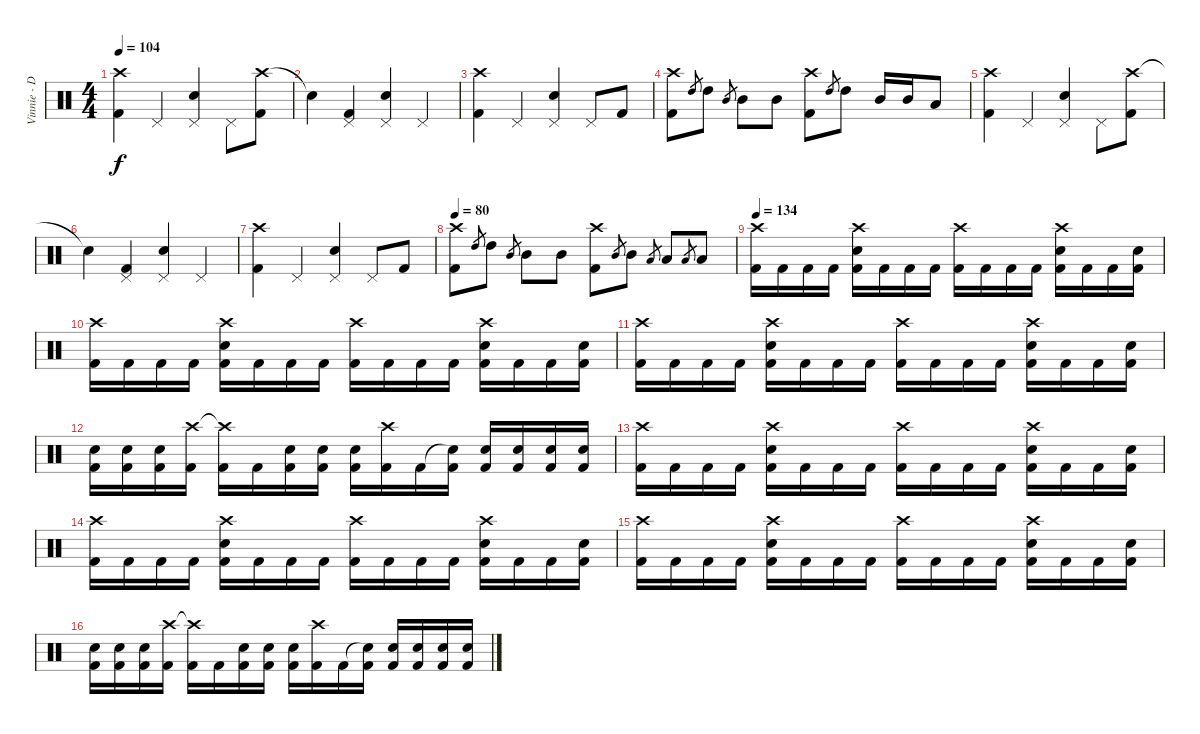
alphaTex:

\track ("Vinnie - Drums" "Vinnie - D") {instrument percussion}
\staff {score}
\articulation defaults
\ts (4 4)
\tempo 104
\clef neutral
\ks c
("Crash high (hit)" "Kick (hit) 2").4{dy f} "Pedal Hi-Hat (hit)".4 ("Pedal Hi-Hat (hit)" "Electric Snare (hit)").4 "Pedal Hi-Hat (hit)".8 ("Crash high (hit)" "Kick (hit) 2").8 |
"Snare (hit)"{t}.4 ("Pedal Hi-Hat (hit)" "Kick (hit) 2").4 ("Pedal Hi-Hat (hit)" "Electric Snare (hit)").4 "Pedal Hi-Hat (hit)".4 |
("Crash high (hit)" "Kick (hit) 2").4 "Pedal Hi-Hat (hit)".4 ("Pedal Hi-Hat (hit)" "Electric Snare (hit)").4 "Pedal Hi-Hat (hit)".8 "Kick (hit) 2".8 |
("Crash high (hit)" "Kick (hit) 2").8 "High Tom (hit)".8{gr} "High Tom (hit)".8 "Mid Tom (hit)".8{gr} "Mid Tom (hit)".8 "Mid Tom (hit)".8 ("Crash high (hit)" "Kick (hit) 2").8 "High Tom (hit)".8{gr} "High Tom (hit)".8 "Mid Tom (hit)".16 "Mid Tom (hit)".16 "Low Tom (hit)".8 |
("Crash high (hit)" "Kick (hit) 2").4 "Pedal Hi-Hat (hit)".4 ("Pedal Hi-Hat (hit)" "Electric Snare (hit)").4 "Pedal Hi-Hat (hit)".8 ("Crash high (hit)" "Kick (hit) 2").8 |
"Snare (hit)"{t}.4 ("Pedal Hi-Hat (hit)" "Kick (hit) 2").4 ("Pedal Hi-Hat (hit)" "Electric Snare (hit)").4 "Pedal Hi-Hat (hit)".4 |
("Crash high (hit)" "Kick (hit) 2").4 "Pedal Hi-Hat (hit)".4 ("Pedal Hi-Hat (hit)" "Electric Snare (hit)").4 "Pedal Hi-Hat (hit)".8 "Kick (hit) 2".8 |
\tempo 80
("Crash high (hit)" "Kick (hit) 2").8 "High Tom (hit)".8{gr} "High Tom (hit)".8 "Mid Tom (hit)".8{gr} "Mid Tom (hit)".8 "Mid Tom (hit)".8 ("Crash high (hit)" "Kick (hit) 2").8 "Mid Tom (hit)".8{gr} "Mid Tom (hit)".8 "Low Tom (hit)".8{gr} "Low Tom (hit)".8 "Low Tom (hit)".8{gr} "Low Tom (hit)".8 |
\tempo 134
("Crash high (hit)" "Kick (hit) 2").16 "Kick (hit) 2".16 "Kick (hit) 2".16 "Kick (hit) 2".16 ("Crash high (hit)" "Electric Snare (hit)" "Kick (hit) 2").16 "Kick (hit) 2".16 "Kick (hit) 2".16 "Kick (hit) 2".16 ("Crash high (hit)" "Kick (hit) 2").16 "Kick (hit) 2".16 "Kick (hit) 2".16 "Kick (hit) 2".16 ("Crash high (hit)" "Electric Snare (hit)" "Kick (hit) 2").16 "Kick (hit) 2".16 "Kick (hit) 2".16 ("Electric Snare (hit)" "Kick (hit) 2").16 |
("Crash high (hit)" "Kick (hit) 2").16 "Kick (hit) 2".16 "Kick (hit) 2".16 "Kick (hit) 2".16 ("Crash high (hit)" "Electric Snare (hit)" "Kick (hit) 2").16 "Kick (hit) 2".16 "Kick (hit) 2".16 "Kick (hit) 2".16 ("Crash high (hit)" "Kick (hit) 2").16 "Kick (hit) 2".16 "Kick (hit) 2".16 "Kick (hit) 2".16 ("Crash high (hit)" "Electric Snare (hit)" "Kick (hit) 2").16 "Kick (hit) 2".16 "Kick (hit) 2".16 ("Electric Snare (hit)" "Kick (hit) 2").16 |
("Crash high (hit)" "Kick (hit) 2").16 "Kick (hit) 2".16 "Kick (hit) 2".16 "Kick (hit) 2".16 ("Crash high (hit)" "Electric Snare (hit)" "Kick (hit) 2").16 "Kick (hit) 2".16 "Kick (hit) 2".16 "Kick (hit) 2".16 ("Crash high (hit)" "Kick (hit) 2").16 "Kick (hit) 2".16 "Kick (hit) 2".16 "Kick (hit) 2".16 ("Crash high (hit)" "Electric Snare (hit)" "Kick (hit) 2").16 "Kick (hit) 2".16 "Kick (hit) 2".16 ("Electric Snare (hit)" "Kick (hit) 2").16 |
("Electric Snare (hit)" "Kick (hit) 2").16 ("Electric Snare (hit)" "Kick (hit) 2").16 ("Electric Snare (hit)" "Kick (hit) 2").16 ("Crash high (hit)" "Kick (hit) 2").16 ("Crash high (hit)"{t} "Kick (hit) 2").16 "Kick (hit) 2".16 ("Electric Snare (hit)" "Kick (hit) 2").16 ("Electric Snare (hit)" "Kick (hit) 2").16 ("Electric Snare (hit)" "Kick (hit) 2").16 ("Crash high (hit)" "Kick (hit) 2").16 "Kick (hit) 2".16 ("Snare (hit)"{t} "Kick (hit) 2").16 ("Electric Snare (hit)" "Kick (hit) 2").16 ("Electric Snare (hit)" "Kick (hit) 2").16 ("Electric Snare (hit)" "Kick (hit) 2").16 ("Electric Snare (hit)" "Kick (hit) 2").16 |
("Crash high (hit)" "Kick (hit) 2").16 "Kick (hit) 2".16 "Kick (hit) 2".16 "Kick (hit) 2".16 ("Crash high (hit)" "Electric Snare (hit)" "Kick (hit) 2").16 "Kick (hit) 2".16 "Kick (hit) 2".16 "Kick (hit) 2".16 ("Crash high (hit)" "Kick (hit) 2").16 "Kick (hit) 2".16 "Kick (hit) 2".16 "Kick (hit) 2".16 ("Crash high (hit)" "Electric Snare (hit)" "Kick (hit) 2").16 "Kick (hit) 2".16 "Kick (hit) 2".16 ("Electric Snare (hit)" "Kick (hit) 2").16 |
("Crash high (hit)" "Kick (hit) 2").16 "Kick (hit) 2".16 "Kick (hit) 2".16 "Kick (hit) 2".16 ("Crash high (hit)" "Electric Snare (hit)" "Kick (hit) 2").16 "Kick (hit) 2".16 "Kick (hit) 2".16 "Kick (hit) 2".16 ("Crash high (hit)" "Kick (hit) 2").16 "Kick (hit) 2".16 "Kick (hit) 2".16 "Kick (hit) 2".16 ("Crash high (hit)" "Electric Snare (hit)" "Kick (hit) 2").16 "Kick (hit) 2".16 "Kick (hit) 2".16 ("Electric Snare (hit)" "Kick (hit) 2").16 |
("Crash high (hit)" "Kick (hit) 2").16 "Kick (hit) 2".16 "Kick (hit) 2".16 "Kick (hit) 2".16 ("Crash high (hit)" "Electric Snare (hit)" "Kick (hit) 2").16 "Kick (hit) 2".16 "Kick (hit) 2".16 "Kick (hit) 2".16 ("Crash high (hit)" "Kick (hit) 2").16 "Kick (hit) 2".16 "Kick (hit) 2".16 "Kick (hit) 2".16 ("Crash high (hit)" "Electric Snare (hit)" "Kick (hit) 2").16 "Kick (hit) 2".16 "Kick (hit) 2".16 ("Electric Snare (hit)" "Kick (hit) 2").16 |
("Electric Snare (hit)" "Kick (hit) 2").16 ("Electric Snare (hit)" "Kick (hit) 2").16 ("Electric Snare (hit)" "Kick (hit) 2").16 ("Crash high (hit)" "Kick (hit) 2").16 ("Crash high (hit)"{t} "Kick (hit) 2").16 "Kick (hit) 2".16 ("Electric Snare (hit)" "Kick (hit) 2").16 ("Electric Snare (hit)" "Kick (hit) 2").16 ("Electric Snare (hit)" "Kick (hit) 2").16 ("Crash high (hit)" "Kick (hit) 2").16 "Kick (hit) 2".16 ("Snare (hit)"{t} "Kick (hit) 2").16 ("Electric Snare (hit)" "Kick (hit) 2").16 ("Electric Snare (hit)" "Kick (hit) 2").16 ("Electric Snare (hit)" "Kick (hit) 2").16 ("Electric Snare (hit)" "Kick (hit) 2").16
